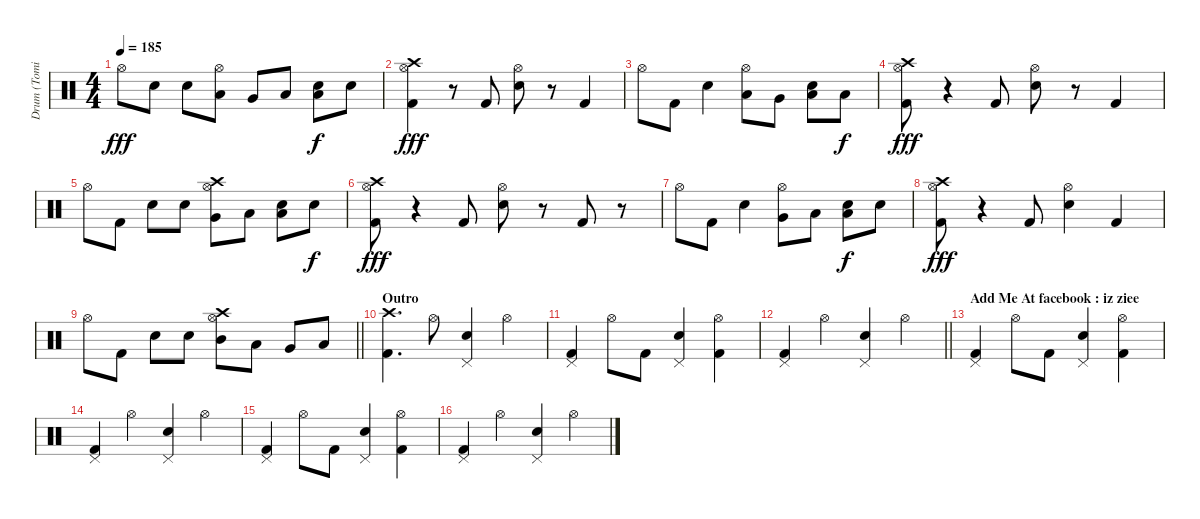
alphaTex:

\track ("Drum (Tomi)" "Drum (Tomi") {instrument percussion}
\staff {score}
\articulation defaults
\ts (4 4)
\tempo 185
\clef neutral
\ks c "Hi-Hat (open)".8{dy fff} "Electric Snare (hit)".8 "Electric Snare (hit)".8
("Hi-Hat (open)" "Low Tom (hit)").8 "Very Low Tom (hit)".8 "Low Floor Tom (hit)".8 ("Electric Snare (hit)" "Low Floor Tom (hit)").8{dy f} "Electric Snare (hit)".8 |
("Hi-Hat (open)" "Crash high (hit)" "Kick (hit) 2").4{dy fff} r.8 "Kick (hit) 2".8 ("Hi-Hat (open)" "Electric Snare (hit)").8 r.8 "Kick (hit) 2".4 |
"Hi-Hat (open)".8 "Kick (hit) 2".8 "Electric Snare (hit)".4 ("Hi-Hat (open)" "Low Tom (hit)").8 "Very Low Tom (hit)".8 ("Low Floor Tom (hit)" "Electric Snare (hit)").8 "Low Floor Tom (hit)".8{dy f} |
("Kick (hit) 2" "Hi-Hat (open)" "Crash high (hit)").8{dy fff} r.4 "Kick (hit) 2".8 ("Hi-Hat (open)" "Electric Snare (hit)").8 r.8 "Kick (hit) 2".4 |
"Hi-Hat (open)".8 "Kick (hit) 2".8 "Electric Snare (hit)".8 "Electric Snare (hit)".8 ("Very Low Tom (hit)" "Hi-Hat (open)" "Crash high (hit)").8 "Low Floor Tom (hit)".8 ("Low Floor Tom (hit)" "Electric Snare (hit)").8 "Electric Snare (hit)".8{dy f} |
("Kick (hit) 2" "Crash high (hit)" "Hi-Hat (open)").8{dy fff} r.4 "Kick (hit) 2".8 ("Hi-Hat (open)" "Electric Snare (hit)").8 r.8 "Kick (hit) 2".8 r.8 |
"Hi-Hat (open)".8 "Kick (hit) 2".8 "Electric Snare (hit)".4 ("Hi-Hat (open)" "Very Low Tom (hit)").8 "Low Floor Tom (hit)".8 ("Low Floor Tom (hit)" "Electric Snare (hit)").8{dy f} "Electric Snare (hit)".8 |
("Hi-Hat (open)" "Crash high (hit)" "Kick (hit) 2").8{dy fff} r.4 "Kick (hit) 2".8 ("Hi-Hat (open)" "Electric Snare (hit)").4 "Kick (hit) 2".4 |
\barLineRight lightlight "Hi-Hat (open)".8 "Kick (hit) 2".8 "Electric Snare (hit)".8 "Electric Snare (hit)".8
("Mid Tom (hit)" "Hi-Hat (open)" "Crash high (hit)").8 "Low Tom (hit)".8 "Very Low Tom (hit)".8 "Low Floor Tom (hit)".8 |
\section ("" "Outro")
("Crash high (hit)" "Kick (hit) 2").4{d} "Hi-Hat (open)".8 ("Pedal Hi-Hat (hit)" "Electric Snare (hit)").4 "Hi-Hat (open)".4 |
("Pedal Hi-Hat (hit)" "Kick (hit) 2").4 "Hi-Hat (open)".8 "Kick (hit) 2".8 ("Pedal Hi-Hat (hit)" "Electric Snare (hit)").4 ("Kick (hit) 2" "Hi-Hat (open)").4 |
\barLineRight lightlight
("Pedal Hi-Hat (hit)" "Kick (hit) 2").4 "Hi-Hat (open)".4 ("Pedal Hi-Hat (hit)" "Electric Snare (hit)").4 "Hi-Hat (open)".4 |
\section ("" "Add Me At facebook : iz ziee")
("Kick (hit) 2" "Pedal Hi-Hat (hit)").4 "Hi-Hat (open)".8 "Kick (hit) 2".8 ("Pedal Hi-Hat (hit)" "Electric Snare (hit)").4 ("Hi-Hat (open)" "Kick (hit) 2").4 |
("Pedal Hi-Hat (hit)" "Kick (hit) 2").4 "Hi-Hat (open)".4 ("Pedal Hi-Hat (hit)" "Electric Snare (hit)").4 "Hi-Hat (open)".4 |
("Pedal Hi-Hat (hit)" "Kick (hit) 2").4 "Hi-Hat (open)".8 "Kick (hit) 2".8 ("Pedal Hi-Hat (hit)" "Electric Snare (hit)").4 ("Hi-Hat (open)" "Kick (hit) 2").4 |
("Kick (hit) 2" "Pedal Hi-Hat (hit)").4 "Hi-Hat (open)".4 ("Pedal Hi-Hat (hit)" "Electric Snare (hit)").4 "Hi-Hat (open)".4
